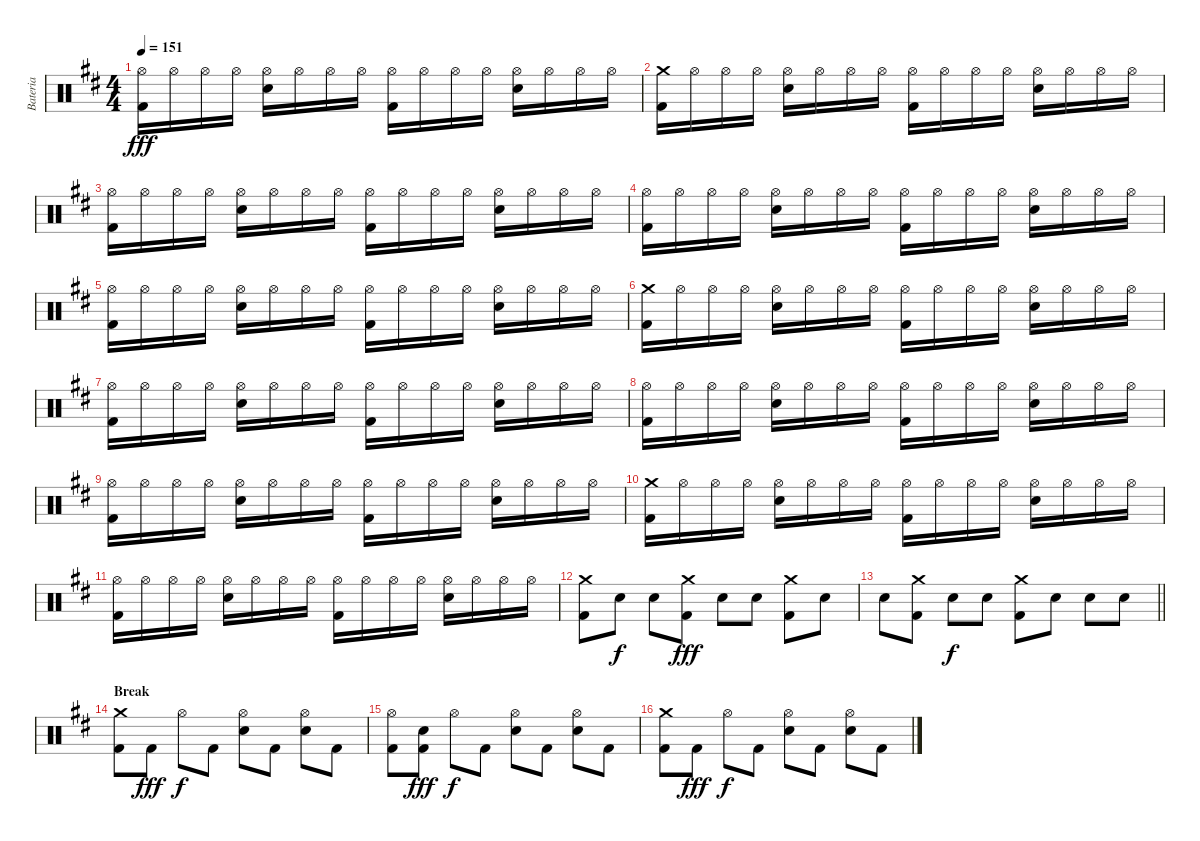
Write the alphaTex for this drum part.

\track ("Bateria " "Bateria ") {instrument percussion}
\staff {score}
\articulation defaults
\ts (4 4)
\tempo 151
\clef neutral
\ks d
("Hi-Hat (open)" "Kick (hit) 2").16{dy fff} "Hi-Hat (open)".16 "Hi-Hat (open)".16 "Hi-Hat (open)".16 ("Hi-Hat (open)" "Electric Snare (hit)").16 "Hi-Hat (open)".16 "Hi-Hat (open)".16 "Hi-Hat (open)".16 ("Hi-Hat (open)" "Kick (hit) 2").16 "Hi-Hat (open)".16 "Hi-Hat (open)".16 "Hi-Hat (open)".16 ("Hi-Hat (open)" "Electric Snare (hit)").16 "Hi-Hat (open)".16 "Hi-Hat (open)".16 "Hi-Hat (open)".16 |
("Crash medium (hit)" "Kick (hit) 2").16 "Hi-Hat (open)".16 "Hi-Hat (open)".16 "Hi-Hat (open)".16 ("Hi-Hat (open)" "Electric Snare (hit)").16 "Hi-Hat (open)".16 "Hi-Hat (open)".16 "Hi-Hat (open)".16 ("Hi-Hat (open)" "Kick (hit) 2").16 "Hi-Hat (open)".16 "Hi-Hat (open)".16 "Hi-Hat (open)".16 ("Hi-Hat (open)" "Electric Snare (hit)").16 "Hi-Hat (open)".16 "Hi-Hat (open)".16 "Hi-Hat (open)".16 |
("Hi-Hat (open)" "Kick (hit) 2").16 "Hi-Hat (open)".16 "Hi-Hat (open)".16 "Hi-Hat (open)".16 ("Hi-Hat (open)" "Electric Snare (hit)").16 "Hi-Hat (open)".16 "Hi-Hat (open)".16 "Hi-Hat (open)".16 ("Hi-Hat (open)" "Kick (hit) 2").16 "Hi-Hat (open)".16 "Hi-Hat (open)".16 "Hi-Hat (open)".16 ("Hi-Hat (open)" "Electric Snare (hit)").16 "Hi-Hat (open)".16 "Hi-Hat (open)".16 "Hi-Hat (open)".16 |
("Hi-Hat (open)" "Kick (hit) 2").16 "Hi-Hat (open)".16 "Hi-Hat (open)".16 "Hi-Hat (open)".16 ("Hi-Hat (open)" "Electric Snare (hit)").16 "Hi-Hat (open)".16 "Hi-Hat (open)".16 "Hi-Hat (open)".16 ("Hi-Hat (open)" "Kick (hit) 2").16 "Hi-Hat (open)".16 "Hi-Hat (open)".16 "Hi-Hat (open)".16 ("Hi-Hat (open)" "Electric Snare (hit)").16 "Hi-Hat (open)".16 "Hi-Hat (open)".16 "Hi-Hat (open)".16 |
("Hi-Hat (open)" "Kick (hit) 2").16 "Hi-Hat (open)".16 "Hi-Hat (open)".16 "Hi-Hat (open)".16 ("Hi-Hat (open)" "Electric Snare (hit)").16 "Hi-Hat (open)".16 "Hi-Hat (open)".16 "Hi-Hat (open)".16 ("Hi-Hat (open)" "Kick (hit) 2").16 "Hi-Hat (open)".16 "Hi-Hat (open)".16 "Hi-Hat (open)".16 ("Hi-Hat (open)" "Electric Snare (hit)").16 "Hi-Hat (open)".16 "Hi-Hat (open)".16 "Hi-Hat (open)".16 |
("Crash medium (hit)" "Kick (hit) 2").16 "Hi-Hat (open)".16 "Hi-Hat (open)".16 "Hi-Hat (open)".16 ("Hi-Hat (open)" "Electric Snare (hit)").16 "Hi-Hat (open)".16 "Hi-Hat (open)".16 "Hi-Hat (open)".16 ("Hi-Hat (open)" "Kick (hit) 2").16 "Hi-Hat (open)".16 "Hi-Hat (open)".16 "Hi-Hat (open)".16 ("Hi-Hat (open)" "Electric Snare (hit)").16 "Hi-Hat (open)".16 "Hi-Hat (open)".16 "Hi-Hat (open)".16 |
("Hi-Hat (open)" "Kick (hit) 2").16 "Hi-Hat (open)".16 "Hi-Hat (open)".16 "Hi-Hat (open)".16 ("Hi-Hat (open)" "Electric Snare (hit)").16 "Hi-Hat (open)".16 "Hi-Hat (open)".16 "Hi-Hat (open)".16 ("Hi-Hat (open)" "Kick (hit) 2").16 "Hi-Hat (open)".16 "Hi-Hat (open)".16 "Hi-Hat (open)".16 ("Hi-Hat (open)" "Electric Snare (hit)").16 "Hi-Hat (open)".16 "Hi-Hat (open)".16 "Hi-Hat (open)".16 |
("Hi-Hat (open)" "Kick (hit) 2").16 "Hi-Hat (open)".16 "Hi-Hat (open)".16 "Hi-Hat (open)".16 ("Hi-Hat (open)" "Electric Snare (hit)").16 "Hi-Hat (open)".16 "Hi-Hat (open)".16 "Hi-Hat (open)".16 ("Hi-Hat (open)" "Kick (hit) 2").16 "Hi-Hat (open)".16 "Hi-Hat (open)".16 "Hi-Hat (open)".16 ("Hi-Hat (open)" "Electric Snare (hit)").16 "Hi-Hat (open)".16 "Hi-Hat (open)".16 "Hi-Hat (open)".16 |
("Hi-Hat (open)" "Kick (hit) 2").16 "Hi-Hat (open)".16 "Hi-Hat (open)".16 "Hi-Hat (open)".16 ("Hi-Hat (open)" "Electric Snare (hit)").16 "Hi-Hat (open)".16 "Hi-Hat (open)".16 "Hi-Hat (open)".16 ("Hi-Hat (open)" "Kick (hit) 2").16 "Hi-Hat (open)".16 "Hi-Hat (open)".16 "Hi-Hat (open)".16 ("Hi-Hat (open)" "Electric Snare (hit)").16 "Hi-Hat (open)".16 "Hi-Hat (open)".16 "Hi-Hat (open)".16 |
("Crash medium (hit)" "Kick (hit) 2").16 "Hi-Hat (open)".16 "Hi-Hat (open)".16 "Hi-Hat (open)".16 ("Hi-Hat (open)" "Electric Snare (hit)").16 "Hi-Hat (open)".16 "Hi-Hat (open)".16 "Hi-Hat (open)".16 ("Hi-Hat (open)" "Kick (hit) 2").16 "Hi-Hat (open)".16 "Hi-Hat (open)".16 "Hi-Hat (open)".16 ("Hi-Hat (open)" "Electric Snare (hit)").16 "Hi-Hat (open)".16 "Hi-Hat (open)".16 "Hi-Hat (open)".16 |
("Hi-Hat (open)" "Kick (hit) 2").16 "Hi-Hat (open)".16 "Hi-Hat (open)".16 "Hi-Hat (open)".16 ("Hi-Hat (open)" "Electric Snare (hit)").16 "Hi-Hat (open)".16 "Hi-Hat (open)".16 "Hi-Hat (open)".16 ("Hi-Hat (open)" "Kick (hit) 2").16 "Hi-Hat (open)".16 "Hi-Hat (open)".16 "Hi-Hat (open)".16 ("Hi-Hat (open)" "Electric Snare (hit)").16 "Hi-Hat (open)".16 "Hi-Hat (open)".16 "Hi-Hat (open)".16 |
("Crash medium (hit)" "Kick (hit) 2").8 "Electric Snare (hit)".8{dy f} "Electric Snare (hit)".8 ("Crash medium (hit)" "Kick (hit) 2").8{dy fff} "Electric Snare (hit)".8 "Electric Snare (hit)".8 ("Crash medium (hit)" "Kick (hit) 2").8 "Electric Snare (hit)".8 |
\barLineRight lightlight "Electric Snare (hit)".8
("Crash medium (hit)" "Kick (hit) 2").8 "Electric Snare (hit)".8{dy f} "Electric Snare (hit)".8 ("Crash medium (hit)" "Kick (hit) 2").8 "Electric Snare (hit)".8 "Electric Snare (hit)".8 "Electric Snare (hit)".8 |
\section ("" "Break")
("Crash medium (hit)" "Kick (hit) 2").8 "Kick (hit) 2".8{dy fff} "Hi-Hat (open)".8{dy f} "Kick (hit) 2".8 ("Hi-Hat (open)" "Electric Snare (hit)").8 "Kick (hit) 2".8 ("Hi-Hat (open)" "Electric Snare (hit)").8 "Kick (hit) 2".8 |
("Hi-Hat (open)" "Kick (hit) 2").8 ("Electric Snare (hit)" "Kick (hit) 2").8{dy fff} "Hi-Hat (open)".8{dy f} "Kick (hit) 2".8 ("Hi-Hat (open)" "Electric Snare (hit)").8 "Kick (hit) 2".8 ("Hi-Hat (open)" "Electric Snare (hit)").8 "Kick (hit) 2".8 |
("Crash medium (hit)" "Kick (hit) 2").8 "Kick (hit) 2".8{dy fff} "Hi-Hat (open)".8{dy f} "Kick (hit) 2".8 ("Hi-Hat (open)" "Electric Snare (hit)").8 "Kick (hit) 2".8 ("Hi-Hat (open)" "Electric Snare (hit)").8 "Kick (hit) 2".8
